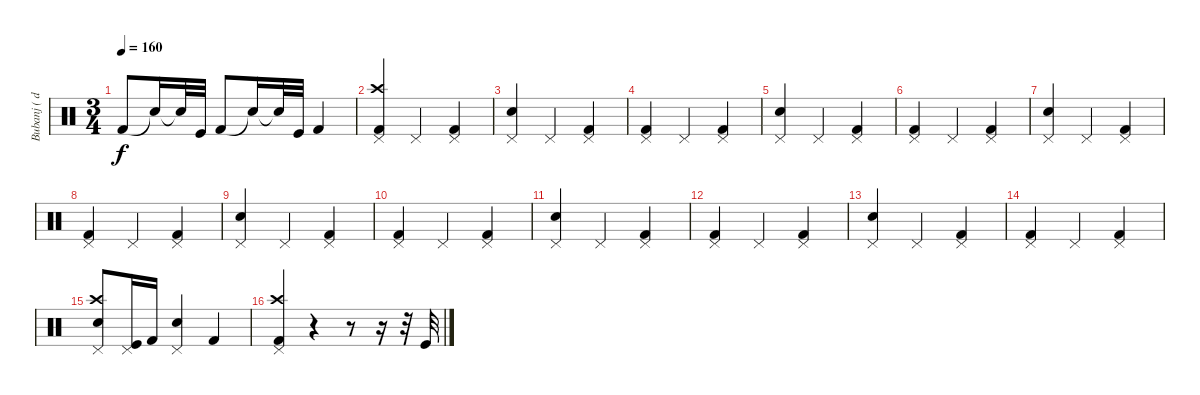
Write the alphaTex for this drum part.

\track ("Bubanj ( drums )" "Bubanj ( d") {instrument percussion}
\staff {score}
\articulation defaults
\ts (3 4)
\tempo 160
\clef neutral
\ks c "Kick (hit) 2".8{dy f} "Snare (hit)"{t}.16 "Snare (hit)"{t}.32 "Kick (hit)".32 "Kick (hit) 2".8 "Snare (hit)"{t}.16 "Snare (hit)"{t}.32 "Kick (hit)".32 "Kick (hit) 2".4
|
("Kick (hit) 2" "Crash high (hit)" "Pedal Hi-Hat (hit)").4 "Pedal Hi-Hat (hit)".4 ("Kick (hit) 2" "Pedal Hi-Hat (hit)").4 |
("Snare (hit) 2" "Pedal Hi-Hat (hit)").4 "Pedal Hi-Hat (hit)".4 ("Kick (hit) 2" "Pedal Hi-Hat (hit)").4 |
("Kick (hit) 2" "Pedal Hi-Hat (hit)").4 "Pedal Hi-Hat (hit)".4 ("Kick (hit) 2" "Pedal Hi-Hat (hit)").4 |
("Snare (hit) 2" "Pedal Hi-Hat (hit)").4 "Pedal Hi-Hat (hit)".4 ("Kick (hit) 2" "Pedal Hi-Hat (hit)").4 |
("Kick (hit) 2" "Pedal Hi-Hat (hit)").4 "Pedal Hi-Hat (hit)".4 ("Kick (hit) 2" "Pedal Hi-Hat (hit)").4 |
("Snare (hit) 2" "Pedal Hi-Hat (hit)").4 "Pedal Hi-Hat (hit)".4 ("Kick (hit) 2" "Pedal Hi-Hat (hit)").4 |
("Kick (hit) 2" "Pedal Hi-Hat (hit)").4 "Pedal Hi-Hat (hit)".4 ("Kick (hit) 2" "Pedal Hi-Hat (hit)").4 |
("Snare (hit) 2" "Pedal Hi-Hat (hit)").4 "Pedal Hi-Hat (hit)".4 ("Kick (hit) 2" "Pedal Hi-Hat (hit)").4 |
("Kick (hit) 2" "Pedal Hi-Hat (hit)").4 "Pedal Hi-Hat (hit)".4 ("Kick (hit) 2" "Pedal Hi-Hat (hit)").4 |
("Snare (hit) 2" "Pedal Hi-Hat (hit)").4 "Pedal Hi-Hat (hit)".4 ("Kick (hit) 2" "Pedal Hi-Hat (hit)").4 |
("Kick (hit) 2" "Pedal Hi-Hat (hit)").4 "Pedal Hi-Hat (hit)".4 ("Kick (hit) 2" "Pedal Hi-Hat (hit)").4 |
("Snare (hit) 2" "Pedal Hi-Hat (hit)").4 "Pedal Hi-Hat (hit)".4 ("Kick (hit) 2" "Pedal Hi-Hat (hit)").4 |
("Kick (hit) 2" "Pedal Hi-Hat (hit)").4 "Pedal Hi-Hat (hit)".4 ("Kick (hit) 2" "Pedal Hi-Hat (hit)").4 |
("Snare (hit) 2" "Crash high (hit)" "Pedal Hi-Hat (hit)").8 ("Kick (hit)" "Pedal Hi-Hat (hit)").16 "Kick (hit) 2".16 ("Snare (hit) 2" "Pedal Hi-Hat (hit)").4 "Kick (hit) 2".4 |
("Kick (hit) 2" "Crash high (hit)" "Pedal Hi-Hat (hit)").4 r.4 r.8 r.16 r.32 "Kick (hit)".32
